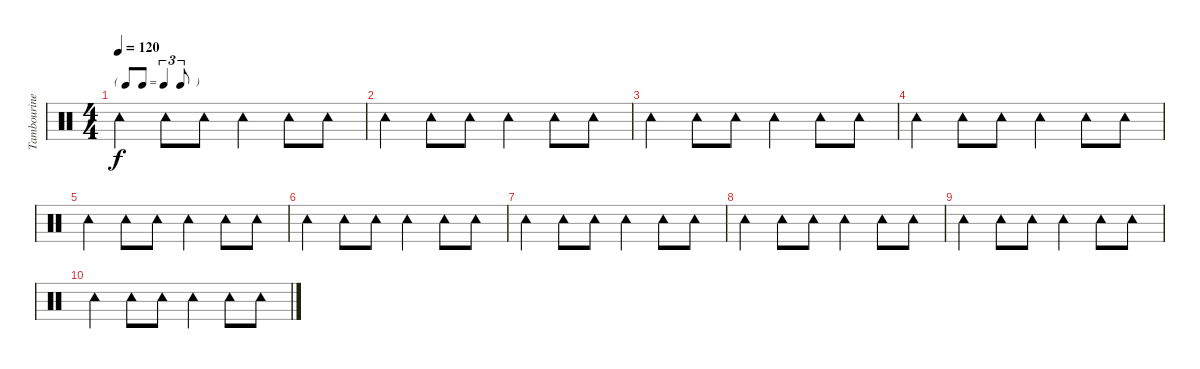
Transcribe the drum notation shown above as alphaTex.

\track ("Tambourine (George Harrison)" "Tambourine") {instrument percussion}
\staff {score}
\articulation defaults
\ts (4 4)
\tf triplet8th
\tempo 120
\clef neutral
\ks c "Tambourine (hit)".4{dy f} "Tambourine (hit)".8 "Tambourine (hit)".8 "Tambourine (hit)".4 "Tambourine (hit)".8 "Tambourine (hit)".8
|
"Tambourine (hit)".4 "Tambourine (hit)".8 "Tambourine (hit)".8 "Tambourine (hit)".4 "Tambourine (hit)".8 "Tambourine (hit)".8 |
"Tambourine (hit)".4 "Tambourine (hit)".8 "Tambourine (hit)".8 "Tambourine (hit)".4 "Tambourine (hit)".8 "Tambourine (hit)".8 |
"Tambourine (hit)".4 "Tambourine (hit)".8 "Tambourine (hit)".8 "Tambourine (hit)".4 "Tambourine (hit)".8 "Tambourine (hit)".8 |
"Tambourine (hit)".4 "Tambourine (hit)".8 "Tambourine (hit)".8 "Tambourine (hit)".4 "Tambourine (hit)".8 "Tambourine (hit)".8 |
"Tambourine (hit)".4 "Tambourine (hit)".8 "Tambourine (hit)".8 "Tambourine (hit)".4 "Tambourine (hit)".8 "Tambourine (hit)".8 |
"Tambourine (hit)".4 "Tambourine (hit)".8 "Tambourine (hit)".8 "Tambourine (hit)".4 "Tambourine (hit)".8 "Tambourine (hit)".8 |
"Tambourine (hit)".4 "Tambourine (hit)".8 "Tambourine (hit)".8 "Tambourine (hit)".4 "Tambourine (hit)".8 "Tambourine (hit)".8 |
"Tambourine (hit)".4 "Tambourine (hit)".8 "Tambourine (hit)".8 "Tambourine (hit)".4 "Tambourine (hit)".8 "Tambourine (hit)".8 |
"Tambourine (hit)".4 "Tambourine (hit)".8 "Tambourine (hit)".8 "Tambourine (hit)".4 "Tambourine (hit)".8 "Tambourine (hit)".8
